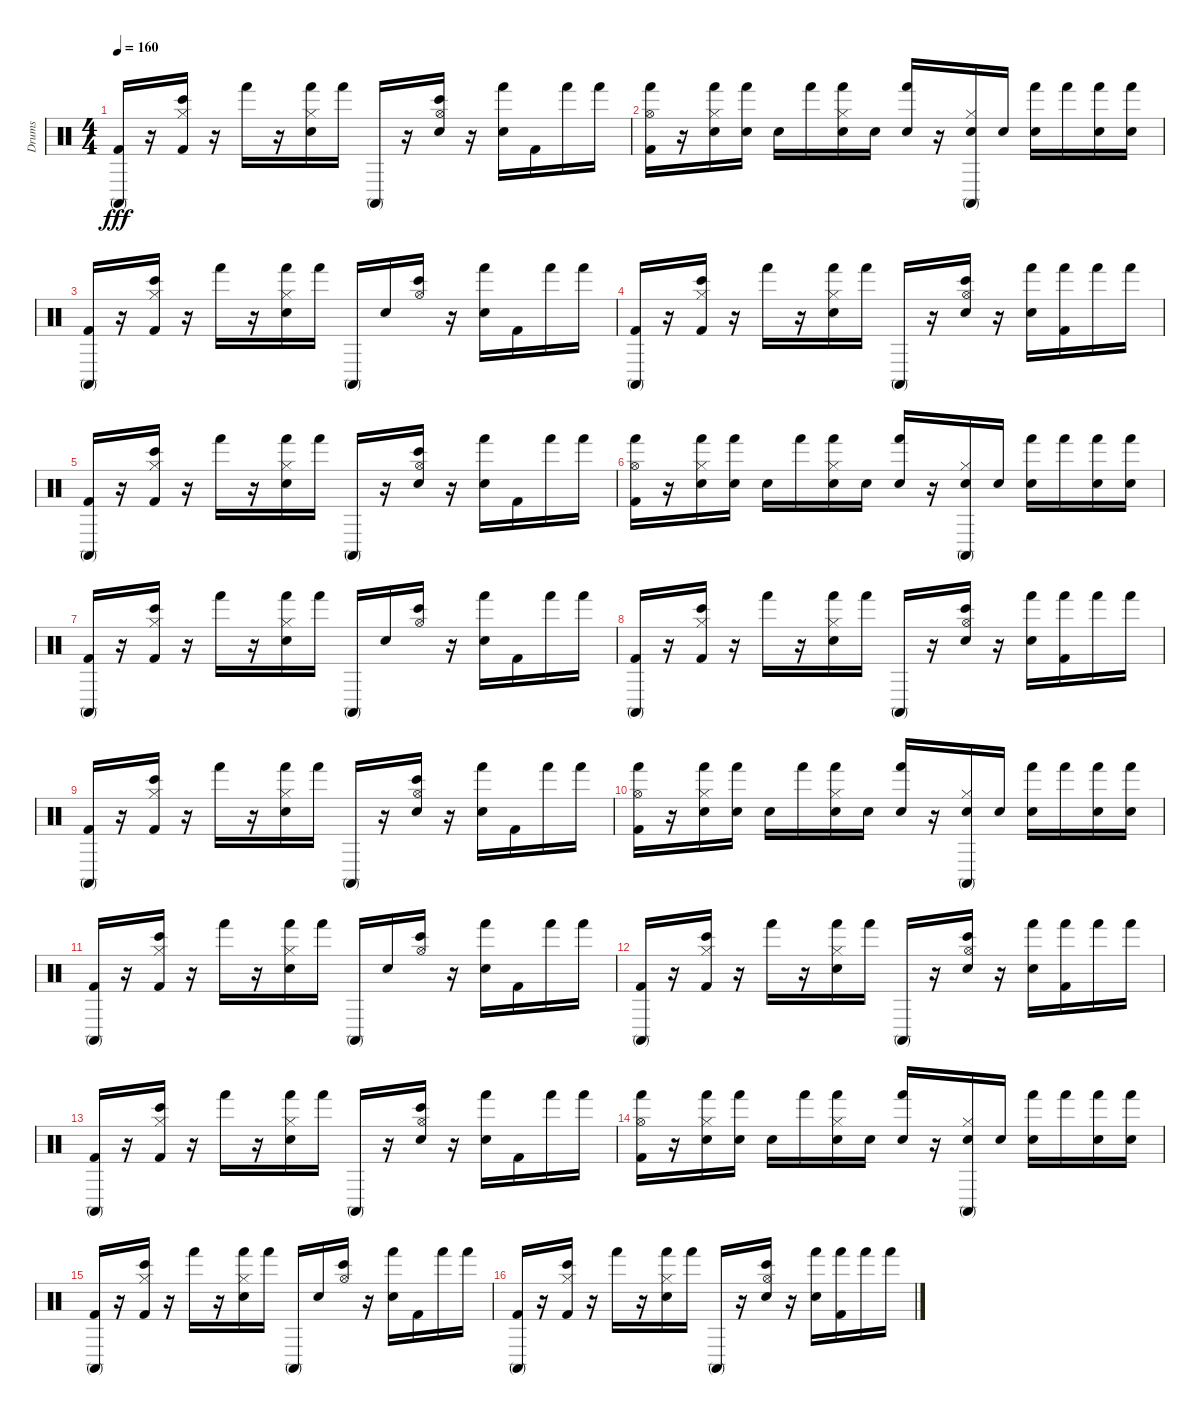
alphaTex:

\track ("Drums" "Drums") {instrument percussion}
\staff {score}
\articulation defaults
\ts (4 4)
\tempo 160
\clef neutral
\ks c
("Conga high (mute)" "Kick (hit) 2").16{dy fff} r.16 ("Kick (hit) 2" "Bongo High (hit)" "Hi-Hat (closed)").16 r.16 "Hand (hit)".16 r.16 ("Electric Snare (hit)" "Hi-Hat (closed)" "Hand (hit)").16 "Hand (hit)".16 "Conga high (mute)".16 r.16 ("Electric Snare (hit)" "Bongo High (hit)" "Hi-Hat (open)").16 r.16 ("Hand (hit)" "Electric Snare (hit)").16 "Kick (hit) 2".16 "Hand (hit)".16 "Hand (hit)".16 |
("Kick (hit) 2" "Hi-Hat (open)" "Hand (hit)").16 r.16 ("Hand (hit)" "Hi-Hat (closed)" "Electric Snare (hit)").16 ("Hand (hit)" "Electric Snare (hit)").16 "Electric Snare (hit)".16 "Hand (hit)".16 ("Hi-Hat (closed)" "Electric Snare (hit)" "Hand (hit)").16 "Electric Snare (hit)".16 ("Hand (hit)" "Electric Snare (hit)").16 r.16 ("Electric Snare (hit)" "Hi-Hat (closed)" "Conga high (mute)").16 "Electric Snare (hit)".16 ("Electric Snare (hit)" "Hand (hit)").16 "Hand (hit)".16 ("Electric Snare (hit)" "Hand (hit)").16 ("Hand (hit)" "Electric Snare (hit)").16 |
("Conga high (mute)" "Kick (hit) 2").16 r.16 ("Kick (hit) 2" "Hi-Hat (closed)" "Bongo High (hit)").16 r.16 "Hand (hit)".16 r.16 ("Electric Snare (hit)" "Hi-Hat (closed)" "Hand (hit)").16 "Hand (hit)".16 "Conga high (mute)".16 "Electric Snare (hit)".16 ("Bongo High (hit)" "Hi-Hat (open)").16 r.16 ("Electric Snare (hit)" "Hand (hit)").16 "Kick (hit) 2".16 "Hand (hit)".16 "Hand (hit)".16 |
("Kick (hit) 2" "Conga high (mute)").16 r.16 ("Hi-Hat (closed)" "Bongo High (hit)" "Kick (hit) 2").16 r.16 "Hand (hit)".16 r.16 ("Hand (hit)" "Hi-Hat (closed)" "Electric Snare (hit)").16 "Hand (hit)".16 "Conga high (mute)".16 r.16 ("Electric Snare (hit)" "Hi-Hat (open)" "Bongo High (hit)").16 r.16 ("Hand (hit)" "Electric Snare (hit)").16 ("Kick (hit) 2" "Hand (hit)").16 "Hand (hit)".16 "Hand (hit)".16 |
("Kick (hit) 2" "Conga high (mute)").16 r.16 ("Kick (hit) 2" "Bongo High (hit)" "Hi-Hat (closed)").16 r.16 "Hand (hit)".16 r.16 ("Hi-Hat (closed)" "Electric Snare (hit)" "Hand (hit)").16 "Hand (hit)".16 "Conga high (mute)".16 r.16 ("Hi-Hat (open)" "Electric Snare (hit)" "Bongo High (hit)").16 r.16 ("Electric Snare (hit)" "Hand (hit)").16 "Kick (hit) 2".16 "Hand (hit)".16 "Hand (hit)".16 |
("Hand (hit)" "Hi-Hat (open)" "Kick (hit) 2").16 r.16 ("Electric Snare (hit)" "Hand (hit)" "Hi-Hat (closed)").16 ("Hand (hit)" "Electric Snare (hit)").16 "Electric Snare (hit)".16 "Hand (hit)".16 ("Hi-Hat (closed)" "Hand (hit)" "Electric Snare (hit)").16 "Electric Snare (hit)".16 ("Electric Snare (hit)" "Hand (hit)").16 r.16 ("Hi-Hat (closed)" "Electric Snare (hit)" "Conga high (mute)").16 "Electric Snare (hit)".16 ("Hand (hit)" "Electric Snare (hit)").16 "Hand (hit)".16 ("Electric Snare (hit)" "Hand (hit)").16 ("Hand (hit)" "Electric Snare (hit)").16 |
("Kick (hit) 2" "Conga high (mute)").16 r.16 ("Bongo High (hit)" "Hi-Hat (closed)" "Kick (hit) 2").16 r.16 "Hand (hit)".16 r.16 ("Hand (hit)" "Hi-Hat (closed)" "Electric Snare (hit)").16 "Hand (hit)".16 "Conga high (mute)".16 "Electric Snare (hit)".16 ("Hi-Hat (open)" "Bongo High (hit)").16 r.16 ("Hand (hit)" "Electric Snare (hit)").16 "Kick (hit) 2".16 "Hand (hit)".16 "Hand (hit)".16 |
("Conga high (mute)" "Kick (hit) 2").16 r.16 ("Hi-Hat (closed)" "Kick (hit) 2" "Bongo High (hit)").16 r.16 "Hand (hit)".16 r.16 ("Hi-Hat (closed)" "Electric Snare (hit)" "Hand (hit)").16 "Hand (hit)".16 "Conga high (mute)".16 r.16 ("Hi-Hat (open)" "Electric Snare (hit)" "Bongo High (hit)").16 r.16 ("Hand (hit)" "Electric Snare (hit)").16 ("Kick (hit) 2" "Hand (hit)").16 "Hand (hit)".16 "Hand (hit)".16 |
("Conga high (mute)" "Kick (hit) 2").16 r.16 ("Kick (hit) 2" "Hi-Hat (closed)" "Bongo High (hit)").16 r.16 "Hand (hit)".16 r.16 ("Hi-Hat (closed)" "Hand (hit)" "Electric Snare (hit)").16 "Hand (hit)".16 "Conga high (mute)".16 r.16 ("Electric Snare (hit)" "Bongo High (hit)" "Hi-Hat (open)").16 r.16 ("Hand (hit)" "Electric Snare (hit)").16 "Kick (hit) 2".16 "Hand (hit)".16 "Hand (hit)".16 |
("Hand (hit)" "Kick (hit) 2" "Hi-Hat (open)").16 r.16 ("Hand (hit)" "Electric Snare (hit)" "Hi-Hat (closed)").16 ("Electric Snare (hit)" "Hand (hit)").16 "Electric Snare (hit)".16 "Hand (hit)".16 ("Hi-Hat (closed)" "Hand (hit)" "Electric Snare (hit)").16 "Electric Snare (hit)".16 ("Electric Snare (hit)" "Hand (hit)").16 r.16 ("Electric Snare (hit)" "Hi-Hat (closed)" "Conga high (mute)").16 "Electric Snare (hit)".16 ("Hand (hit)" "Electric Snare (hit)").16 "Hand (hit)".16 ("Electric Snare (hit)" "Hand (hit)").16 ("Hand (hit)" "Electric Snare (hit)").16 |
("Conga high (mute)" "Kick (hit) 2").16 r.16 ("Bongo High (hit)" "Kick (hit) 2" "Hi-Hat (closed)").16 r.16 "Hand (hit)".16 r.16 ("Hi-Hat (closed)" "Electric Snare (hit)" "Hand (hit)").16 "Hand (hit)".16 "Conga high (mute)".16 "Electric Snare (hit)".16 ("Bongo High (hit)" "Hi-Hat (open)").16 r.16 ("Electric Snare (hit)" "Hand (hit)").16 "Kick (hit) 2".16 "Hand (hit)".16 "Hand (hit)".16 |
("Kick (hit) 2" "Conga high (mute)").16 r.16 ("Kick (hit) 2" "Hi-Hat (closed)" "Bongo High (hit)").16 r.16 "Hand (hit)".16 r.16 ("Electric Snare (hit)" "Hi-Hat (closed)" "Hand (hit)").16 "Hand (hit)".16 "Conga high (mute)".16 r.16 ("Bongo High (hit)" "Electric Snare (hit)" "Hi-Hat (open)").16 r.16 ("Hand (hit)" "Electric Snare (hit)").16 ("Hand (hit)" "Kick (hit) 2").16 "Hand (hit)".16 "Hand (hit)".16 |
("Kick (hit) 2" "Conga high (mute)").16 r.16 ("Hi-Hat (closed)" "Bongo High (hit)" "Kick (hit) 2").16 r.16 "Hand (hit)".16 r.16 ("Hand (hit)" "Electric Snare (hit)" "Hi-Hat (closed)").16 "Hand (hit)".16 "Conga high (mute)".16 r.16 ("Hi-Hat (open)" "Electric Snare (hit)" "Bongo High (hit)").16 r.16 ("Hand (hit)" "Electric Snare (hit)").16 "Kick (hit) 2".16 "Hand (hit)".16 "Hand (hit)".16 |
("Hi-Hat (open)" "Hand (hit)" "Kick (hit) 2").16 r.16 ("Electric Snare (hit)" "Hi-Hat (closed)" "Hand (hit)").16 ("Hand (hit)" "Electric Snare (hit)").16 "Electric Snare (hit)".16 "Hand (hit)".16 ("Hi-Hat (closed)" "Electric Snare (hit)" "Hand (hit)").16 "Electric Snare (hit)".16 ("Hand (hit)" "Electric Snare (hit)").16 r.16 ("Conga high (mute)" "Electric Snare (hit)" "Hi-Hat (closed)").16 "Electric Snare (hit)".16 ("Hand (hit)" "Electric Snare (hit)").16 "Hand (hit)".16 ("Hand (hit)" "Electric Snare (hit)").16 ("Hand (hit)" "Electric Snare (hit)").16 |
("Conga high (mute)" "Kick (hit) 2").16 r.16 ("Bongo High (hit)" "Kick (hit) 2" "Hi-Hat (closed)").16 r.16 "Hand (hit)".16 r.16 ("Hand (hit)" "Hi-Hat (closed)" "Electric Snare (hit)").16 "Hand (hit)".16 "Conga high (mute)".16 "Electric Snare (hit)".16 ("Hi-Hat (open)" "Bongo High (hit)").16 r.16 ("Electric Snare (hit)" "Hand (hit)").16 "Kick (hit) 2".16 "Hand (hit)".16 "Hand (hit)".16 |
("Conga high (mute)" "Kick (hit) 2").16 r.16 ("Hi-Hat (closed)" "Bongo High (hit)" "Kick (hit) 2").16 r.16 "Hand (hit)".16 r.16 ("Hand (hit)" "Electric Snare (hit)" "Hi-Hat (closed)").16 "Hand (hit)".16 "Conga high (mute)".16 r.16 ("Hi-Hat (open)" "Electric Snare (hit)" "Bongo High (hit)").16 r.16 ("Hand (hit)" "Electric Snare (hit)").16 ("Hand (hit)" "Kick (hit) 2").16 "Hand (hit)".16 "Hand (hit)".16
